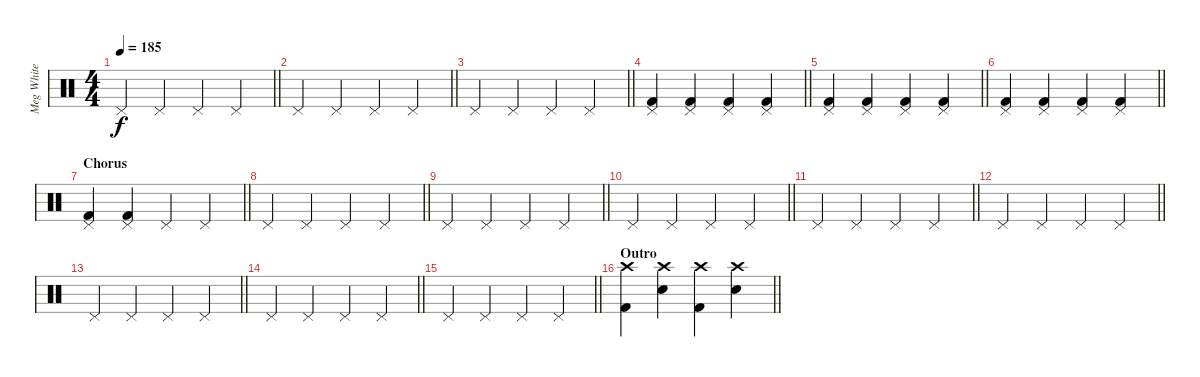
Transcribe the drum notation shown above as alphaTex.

\track ("Meg White (Drums)" "Meg White ") {instrument percussion}
\staff {score}
\articulation defaults
\ts (4 4)
\tempo 185
\clef neutral
\barLineRight lightlight
\ks c "Pedal Hi-Hat (hit)".4{dy f} "Pedal Hi-Hat (hit)".4 "Pedal Hi-Hat (hit)".4 "Pedal Hi-Hat (hit)".4
|
\barLineRight lightlight "Pedal Hi-Hat (hit)".4 "Pedal Hi-Hat (hit)".4 "Pedal Hi-Hat (hit)".4 "Pedal Hi-Hat (hit)".4
|
\barLineRight lightlight "Pedal Hi-Hat (hit)".4 "Pedal Hi-Hat (hit)".4 "Pedal Hi-Hat (hit)".4 "Pedal Hi-Hat (hit)".4
|
\barLineRight lightlight
("Kick (hit) 2" "Pedal Hi-Hat (hit)").4 ("Kick (hit) 2" "Pedal Hi-Hat (hit)").4 ("Kick (hit) 2" "Pedal Hi-Hat (hit)").4 ("Kick (hit) 2" "Pedal Hi-Hat (hit)").4 |
\barLineRight lightlight
("Kick (hit) 2" "Pedal Hi-Hat (hit)").4 ("Kick (hit) 2" "Pedal Hi-Hat (hit)").4 ("Kick (hit) 2" "Pedal Hi-Hat (hit)").4 ("Kick (hit) 2" "Pedal Hi-Hat (hit)").4 |
\barLineRight lightlight
("Kick (hit) 2" "Pedal Hi-Hat (hit)").4 ("Kick (hit) 2" "Pedal Hi-Hat (hit)").4 ("Kick (hit) 2" "Pedal Hi-Hat (hit)").4 ("Kick (hit) 2" "Pedal Hi-Hat (hit)").4 |
\section ("" "Chorus")
\barLineRight lightlight
("Kick (hit) 2" "Pedal Hi-Hat (hit)").4 ("Kick (hit) 2" "Pedal Hi-Hat (hit)").4 "Pedal Hi-Hat (hit)".4 "Pedal Hi-Hat (hit)".4 |
\barLineRight lightlight "Pedal Hi-Hat (hit)".4 "Pedal Hi-Hat (hit)".4 "Pedal Hi-Hat (hit)".4 "Pedal Hi-Hat (hit)".4
|
\barLineRight lightlight "Pedal Hi-Hat (hit)".4 "Pedal Hi-Hat (hit)".4 "Pedal Hi-Hat (hit)".4 "Pedal Hi-Hat (hit)".4
|
\barLineRight lightlight "Pedal Hi-Hat (hit)".4 "Pedal Hi-Hat (hit)".4 "Pedal Hi-Hat (hit)".4 "Pedal Hi-Hat (hit)".4
|
\barLineRight lightlight "Pedal Hi-Hat (hit)".4 "Pedal Hi-Hat (hit)".4 "Pedal Hi-Hat (hit)".4 "Pedal Hi-Hat (hit)".4
|
\barLineRight lightlight "Pedal Hi-Hat (hit)".4 "Pedal Hi-Hat (hit)".4 "Pedal Hi-Hat (hit)".4 "Pedal Hi-Hat (hit)".4
|
\barLineRight lightlight "Pedal Hi-Hat (hit)".4 "Pedal Hi-Hat (hit)".4 "Pedal Hi-Hat (hit)".4 "Pedal Hi-Hat (hit)".4
|
\barLineRight lightlight "Pedal Hi-Hat (hit)".4 "Pedal Hi-Hat (hit)".4 "Pedal Hi-Hat (hit)".4 "Pedal Hi-Hat (hit)".4
|
\barLineRight lightlight "Pedal Hi-Hat (hit)".4 "Pedal Hi-Hat (hit)".4 "Pedal Hi-Hat (hit)".4 "Pedal Hi-Hat (hit)".4
|
\section ("" "Outro")
\barLineRight lightlight
("Kick (hit) 2" "Crash high (hit)").4 ("Electric Snare (hit)" "Crash high (hit)").4 ("Kick (hit) 2" "Crash high (hit)").4 ("Electric Snare (hit)" "Crash high (hit)").4
